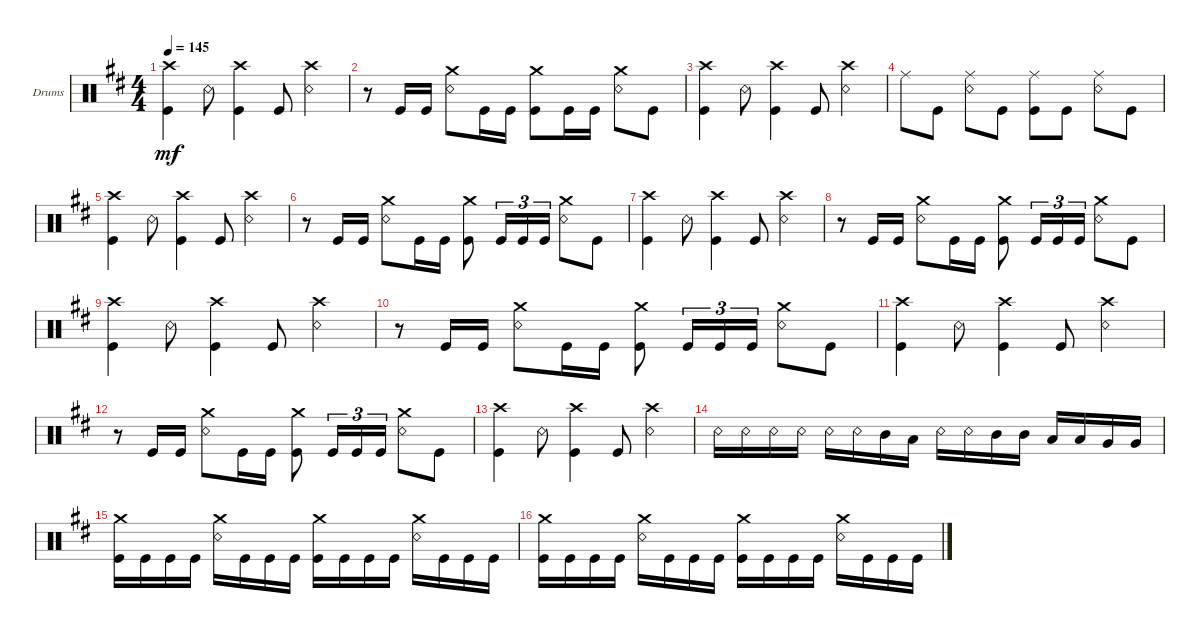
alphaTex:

\defaultSystemsLayout 4
\bracketExtendMode groupsimilarinstruments
\firstSystemTrackNameOrientation horizontal
\otherSystemsTrackNameOrientation horizontal
\track ("Drumkit" "Drums") {instrument percussion}
\staff {score}
\articulation defaults
\ts (4 4)
\tempo 145
\clef neutral
\ks bminor
("Kick (hit)" "Crash high (hit)").4{dy mf} "Snare (rim shot)".8 ("Kick (hit)" "Crash high (hit)").4 "Kick (hit)".8 ("Snare (rim shot)" "Crash high (hit)").4 |
r.8 "Kick (hit)".16 "Kick (hit)".16 ("Snare (rim shot)" "Crash medium (hit)").8 "Kick (hit)".16 "Kick (hit)".16 ("Kick (hit)" "Crash medium (hit)").8 "Kick (hit)".16 "Kick (hit)".16 ("Snare (rim shot)" "Crash medium (hit)").8 "Kick (hit)".8 |
("Kick (hit)" "Crash high (hit)").4 "Snare (rim shot)".8 ("Kick (hit)" "Crash high (hit)").4 "Kick (hit)".8 ("Snare (rim shot)" "Crash high (hit)").4 |
"Ride (middle)".8 "Kick (hit)".8 ("Snare (rim shot)" "Ride (middle)").8 "Kick (hit)".8 ("Kick (hit)" "Ride (middle)").8 "Kick (hit)".8 ("Snare (rim shot)" "Ride (middle)").8 "Kick (hit)".8 |
("Kick (hit)" "Crash high (hit)").4 "Snare (rim shot)".8 ("Kick (hit)" "Crash high (hit)").4 "Kick (hit)".8 ("Snare (rim shot)" "Crash high (hit)").4 |
r.8 "Kick (hit)".16 "Kick (hit)".16 ("Snare (rim shot)" "Crash medium (hit)").8 "Kick (hit)".16 "Kick (hit)".16 ("Kick (hit)" "Crash medium (hit)").8 "Kick (hit)".16{tu (3 2)} "Kick (hit)".16{tu (3 2)} "Kick (hit)".16{tu (3 2)} ("Snare (rim shot)" "Crash medium (hit)").8 "Kick (hit)".8 |
("Kick (hit)" "Crash high (hit)").4 "Snare (rim shot)".8 ("Kick (hit)" "Crash high (hit)").4 "Kick (hit)".8 ("Snare (rim shot)" "Crash high (hit)").4 |
r.8 "Kick (hit)".16 "Kick (hit)".16 ("Snare (rim shot)" "Crash medium (hit)").8 "Kick (hit)".16 "Kick (hit)".16 ("Kick (hit)" "Crash medium (hit)").8 "Kick (hit)".16{tu (3 2)} "Kick (hit)".16{tu (3 2)} "Kick (hit)".16{tu (3 2)} ("Snare (rim shot)" "Crash medium (hit)").8 "Kick (hit)".8 |
("Kick (hit)" "Crash high (hit)").4 "Snare (rim shot)".8 ("Kick (hit)" "Crash high (hit)").4 "Kick (hit)".8 ("Snare (rim shot)" "Crash high (hit)").4 |
r.8 "Kick (hit)".16 "Kick (hit)".16 ("Snare (rim shot)" "Crash medium (hit)").8 "Kick (hit)".16 "Kick (hit)".16 ("Kick (hit)" "Crash medium (hit)").8 "Kick (hit)".16{tu (3 2)} "Kick (hit)".16{tu (3 2)} "Kick (hit)".16{tu (3 2)} ("Snare (rim shot)" "Crash medium (hit)").8 "Kick (hit)".8 |
("Kick (hit)" "Crash high (hit)").4 "Snare (rim shot)".8 ("Kick (hit)" "Crash high (hit)").4 "Kick (hit)".8 ("Snare (rim shot)" "Crash high (hit)").4 |
r.8 "Kick (hit)".16 "Kick (hit)".16 ("Snare (rim shot)" "Crash medium (hit)").8 "Kick (hit)".16 "Kick (hit)".16 ("Kick (hit)" "Crash medium (hit)").8 "Kick (hit)".16{tu (3 2)} "Kick (hit)".16{tu (3 2)} "Kick (hit)".16{tu (3 2)} ("Snare (rim shot)" "Crash medium (hit)").8 "Kick (hit)".8 |
("Kick (hit)" "Crash high (hit)").4 "Snare (rim shot)".8 ("Kick (hit)" "Crash high (hit)").4 "Kick (hit)".8 ("Snare (rim shot)" "Crash high (hit)").4 |
"Snare (rim shot)".16 "Snare (rim shot)".16 "Snare (rim shot)".16 "Snare (rim shot)".16 "Snare (rim shot)".16 "Snare (rim shot)".16 "Mid Tom (hit)".16 "Low Tom (hit)".16 "Snare (rim shot)".16 "Snare (rim shot)".16 "Mid Tom (hit)".16 "Mid Tom (hit)".16 "Low Tom (hit)".16 "Low Tom (hit)".16 "Very Low Tom (hit)".16 "Very Low Tom (hit)".16 |
("Kick (hit)" "Crash medium (hit)").16 "Kick (hit)".16 "Kick (hit)".16 "Kick (hit)".16 ("Snare (rim shot)" "Crash medium (hit)").16 "Kick (hit)".16 "Kick (hit)".16 "Kick (hit)".16 ("Kick (hit)" "Crash medium (hit)").16 "Kick (hit)".16 "Kick (hit)".16 "Kick (hit)".16 ("Snare (rim shot)" "Crash medium (hit)").16 "Kick (hit)".16 "Kick (hit)".16 "Kick (hit)".16 |
("Kick (hit)" "Crash medium (hit)").16 "Kick (hit)".16 "Kick (hit)".16 "Kick (hit)".16 ("Snare (rim shot)" "Crash medium (hit)").16 "Kick (hit)".16 "Kick (hit)".16 "Kick (hit)".16 ("Kick (hit)" "Crash medium (hit)").16 "Kick (hit)".16 "Kick (hit)".16 "Kick (hit)".16 ("Snare (rim shot)" "Crash medium (hit)").16 "Kick (hit)".16 "Kick (hit)".16 "Kick (hit)".16
